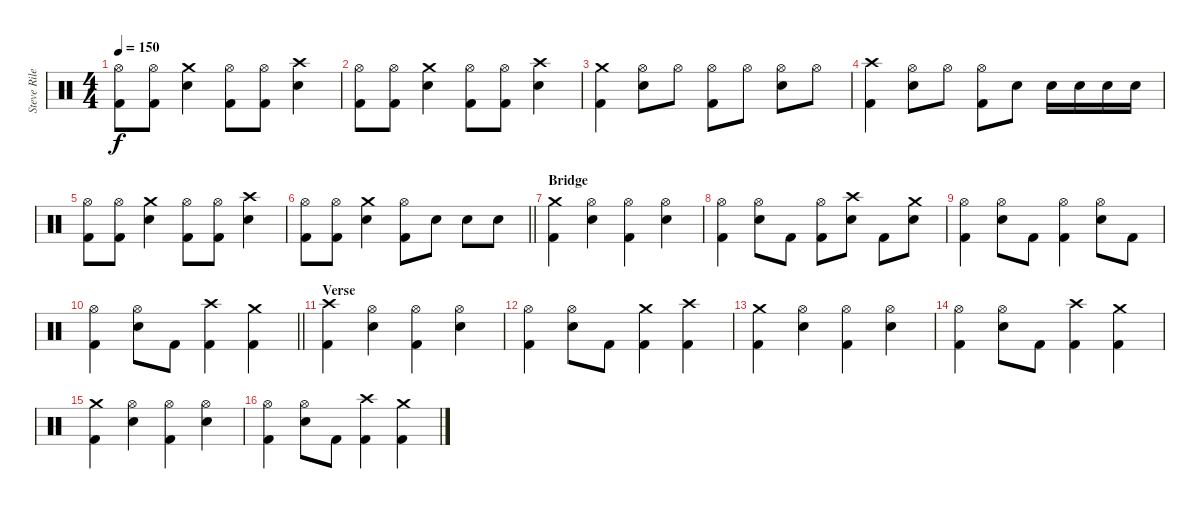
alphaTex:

\track ("Steve Riley" "Steve Rile") {instrument percussion}
\staff {score}
\articulation defaults
\ts (4 4)
\tempo 150
\clef neutral
\ks c
("Hi-Hat (open)" "Kick (hit) 2").8{dy f} ("Hi-Hat (open)" "Kick (hit) 2").8 ("Crash medium (hit)" "Snare (hit) 2").4 ("Hi-Hat (open)" "Kick (hit) 2").8 ("Hi-Hat (open)" "Kick (hit) 2").8 ("Crash high (hit)" "Snare (hit) 2").4 |
("Hi-Hat (open)" "Kick (hit) 2").8 ("Hi-Hat (open)" "Kick (hit) 2").8 ("Crash medium (hit)" "Snare (hit) 2").4 ("Hi-Hat (open)" "Kick (hit) 2").8 ("Hi-Hat (open)" "Kick (hit) 2").8 ("Crash high (hit)" "Snare (hit) 2").4 |
("Crash medium (hit)" "Kick (hit) 2").4 ("Hi-Hat (open)" "Snare (hit) 2").8 "Hi-Hat (open)".8 ("Hi-Hat (open)" "Kick (hit) 2").8 "Hi-Hat (open)".8 ("Hi-Hat (open)" "Snare (hit) 2").8 "Hi-Hat (open)".8 |
("Crash high (hit)" "Kick (hit) 2").4 ("Hi-Hat (open)" "Snare (hit) 2").8 "Hi-Hat (open)".8 ("Hi-Hat (open)" "Kick (hit) 2").8 "Snare (hit) 2".8 "Snare (hit) 2".16 "Snare (hit) 2".16 "Snare (hit) 2".16 "Snare (hit) 2".16 |
("Hi-Hat (open)" "Kick (hit) 2").8 ("Hi-Hat (open)" "Kick (hit) 2").8 ("Crash medium (hit)" "Snare (hit) 2").4 ("Hi-Hat (open)" "Kick (hit) 2").8 ("Hi-Hat (open)" "Kick (hit) 2").8 ("Crash high (hit)" "Snare (hit) 2").4 |
\barLineRight lightlight
("Hi-Hat (open)" "Kick (hit) 2").8 ("Hi-Hat (open)" "Kick (hit) 2").8 ("Crash medium (hit)" "Snare (hit) 2").4 ("Hi-Hat (open)" "Kick (hit) 2").8 "Snare (hit) 2".8 "Snare (hit) 2".8 "Snare (hit) 2".8 |
\section ("" "Bridge")
("Crash medium (hit)" "Kick (hit) 2").4 ("Hi-Hat (open)" "Snare (hit) 2").4 ("Hi-Hat (open)" "Kick (hit) 2").4 ("Hi-Hat (open)" "Snare (hit) 2").4 |
("Hi-Hat (open)" "Kick (hit) 2").4 ("Hi-Hat (open)" "Snare (hit) 2").8 "Kick (hit) 2".8 ("Hi-Hat (open)" "Kick (hit) 2").8 ("Crash high (hit)" "Snare (hit) 2").8 "Kick (hit) 2".8 ("Crash medium (hit)" "Snare (hit) 2").8 |
("Hi-Hat (open)" "Kick (hit) 2").4 ("Hi-Hat (open)" "Snare (hit) 2").8 "Kick (hit) 2".8 ("Hi-Hat (open)" "Kick (hit) 2").4 ("Hi-Hat (open)" "Snare (hit) 2").8 "Kick (hit) 2".8 |
\barLineRight lightlight
("Hi-Hat (open)" "Kick (hit) 2").4 ("Hi-Hat (open)" "Snare (hit) 2").8 "Kick (hit) 2".8 ("Crash high (hit)" "Kick (hit) 2").4 ("Crash medium (hit)" "Kick (hit) 2").4 |
\section ("" "Verse")
("Crash high (hit)" "Kick (hit) 2").4 ("Hi-Hat (open)" "Snare (hit) 2").4 ("Hi-Hat (open)" "Kick (hit) 2").4 ("Hi-Hat (open)" "Snare (hit) 2").4 |
("Hi-Hat (open)" "Kick (hit) 2").4 ("Hi-Hat (open)" "Snare (hit) 2").8 "Kick (hit) 2".8 ("Crash medium (hit)" "Kick (hit) 2").4 ("Crash high (hit)" "Kick (hit) 2").4 |
("Crash medium (hit)" "Kick (hit) 2").4 ("Hi-Hat (open)" "Snare (hit) 2").4 ("Hi-Hat (open)" "Kick (hit) 2").4 ("Hi-Hat (open)" "Snare (hit) 2").4 |
("Hi-Hat (open)" "Kick (hit) 2").4 ("Hi-Hat (open)" "Snare (hit) 2").8 "Kick (hit) 2".8 ("Crash high (hit)" "Kick (hit) 2").4 ("Crash medium (hit)" "Kick (hit) 2").4 |
("Crash medium (hit)" "Kick (hit) 2").4 ("Hi-Hat (open)" "Snare (hit) 2").4 ("Hi-Hat (open)" "Kick (hit) 2").4 ("Hi-Hat (open)" "Snare (hit) 2").4 |
("Hi-Hat (open)" "Kick (hit) 2").4 ("Hi-Hat (open)" "Snare (hit) 2").8 "Kick (hit) 2".8 ("Crash high (hit)" "Kick (hit) 2").4 ("Crash medium (hit)" "Kick (hit) 2").4
